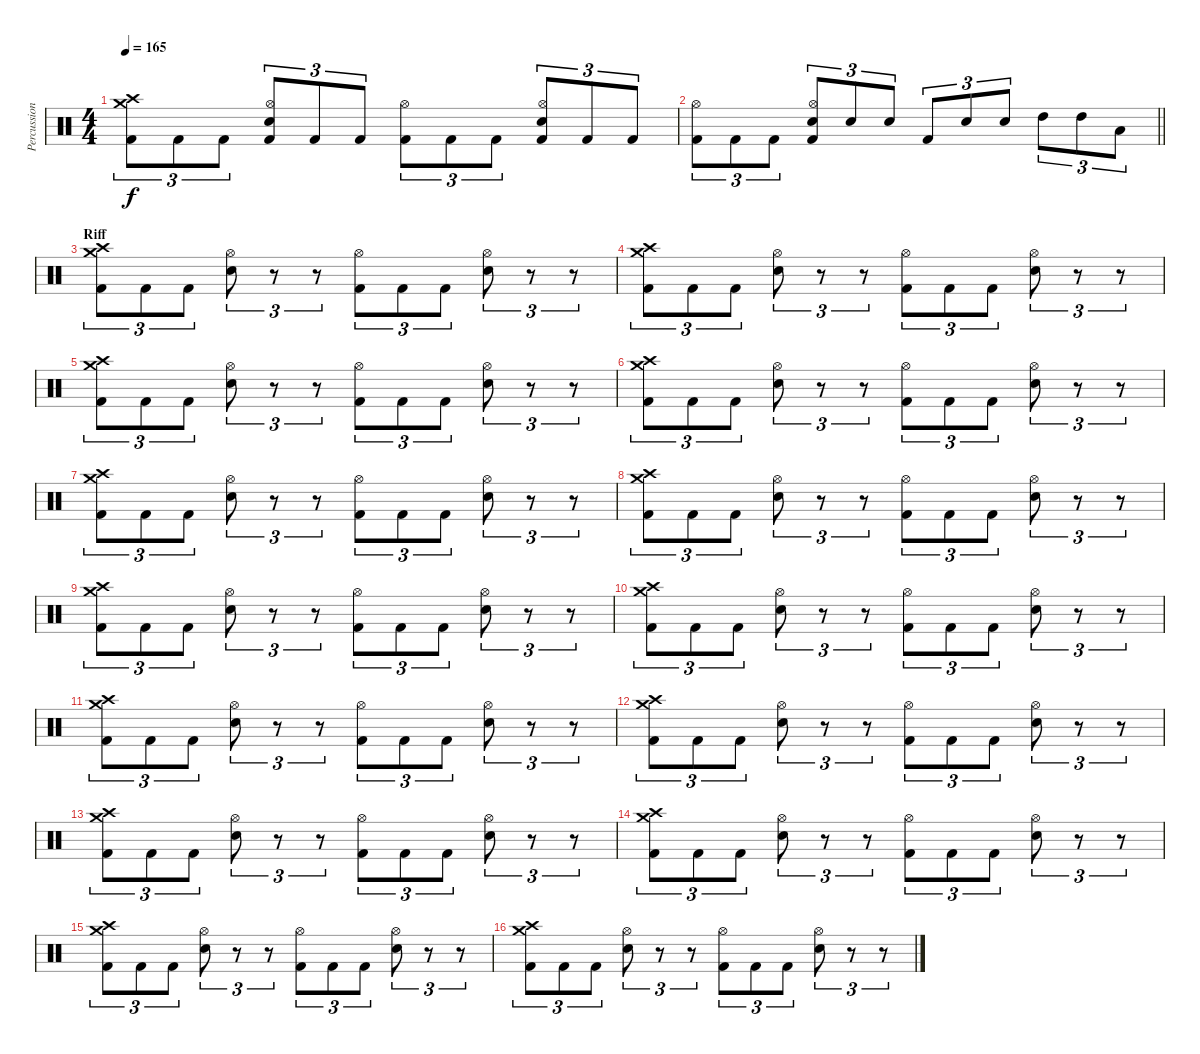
\track ("Percussioni" "Percussion") {instrument percussion}
\staff {score}
\articulation defaults
\ts (4 4)
\tempo 165
\clef neutral
\ks c
("Crash high (hit)" "Crash medium (hit)" "Kick (hit) 2").8{tu (3 2) dy f} "Kick (hit) 2".8{tu (3 2)} "Kick (hit) 2".8{tu (3 2)} ("Hi-Hat (open)" "Electric Snare (hit)" "Kick (hit) 2").8{tu (3 2)} "Kick (hit) 2".8{tu (3 2)} "Kick (hit) 2".8{tu (3 2)} ("Hi-Hat (open)" "Kick (hit) 2").8{tu (3 2)} "Kick (hit) 2".8{tu (3 2)} "Kick (hit) 2".8{tu (3 2)} ("Hi-Hat (open)" "Electric Snare (hit)" "Kick (hit) 2").8{tu (3 2)} "Kick (hit) 2".8{tu (3 2)} "Kick (hit) 2".8{tu (3 2)} |
\barLineRight lightlight
("Hi-Hat (open)" "Kick (hit) 2").8{tu (3 2)} "Kick (hit) 2".8{tu (3 2)} "Kick (hit) 2".8{tu (3 2)} ("Hi-Hat (open)" "Electric Snare (hit)" "Kick (hit) 2").8{tu (3 2)} "Electric Snare (hit)".8{tu (3 2)} "Electric Snare (hit)".8{tu (3 2)} "Kick (hit) 2".8{tu (3 2)} "Electric Snare (hit)".8{tu (3 2)} "Electric Snare (hit)".8{tu (3 2)} "High Tom (hit)".8{tu (3 2)} "High Tom (hit)".8{tu (3 2)} "Low Tom (hit)".8{tu (3 2)} |
\section ("" "Riff")
("Crash high (hit)" "Crash medium (hit)" "Kick (hit) 2").8{tu (3 2)} "Kick (hit) 2".8{tu (3 2)} "Kick (hit) 2".8{tu (3 2)} ("Hi-Hat (open)" "Electric Snare (hit)").8{tu (3 2)} r.8{tu (3 2)} r.8{tu (3 2)} ("Hi-Hat (open)" "Kick (hit) 2").8{tu (3 2)} "Kick (hit) 2".8{tu (3 2)} "Kick (hit) 2".8{tu (3 2)} ("Hi-Hat (open)" "Electric Snare (hit)").8{tu (3 2)} r.8{tu (3 2)} r.8{tu (3 2)} |
("Crash high (hit)" "Crash medium (hit)" "Kick (hit) 2").8{tu (3 2)} "Kick (hit) 2".8{tu (3 2)} "Kick (hit) 2".8{tu (3 2)} ("Hi-Hat (open)" "Electric Snare (hit)").8{tu (3 2)} r.8{tu (3 2)} r.8{tu (3 2)} ("Hi-Hat (open)" "Kick (hit) 2").8{tu (3 2)} "Kick (hit) 2".8{tu (3 2)} "Kick (hit) 2".8{tu (3 2)} ("Hi-Hat (open)" "Electric Snare (hit)").8{tu (3 2)} r.8{tu (3 2)} r.8{tu (3 2)} |
("Crash high (hit)" "Crash medium (hit)" "Kick (hit) 2").8{tu (3 2)} "Kick (hit) 2".8{tu (3 2)} "Kick (hit) 2".8{tu (3 2)} ("Hi-Hat (open)" "Electric Snare (hit)").8{tu (3 2)} r.8{tu (3 2)} r.8{tu (3 2)} ("Hi-Hat (open)" "Kick (hit) 2").8{tu (3 2)} "Kick (hit) 2".8{tu (3 2)} "Kick (hit) 2".8{tu (3 2)} ("Hi-Hat (open)" "Electric Snare (hit)").8{tu (3 2)} r.8{tu (3 2)} r.8{tu (3 2)} |
("Crash high (hit)" "Crash medium (hit)" "Kick (hit) 2").8{tu (3 2)} "Kick (hit) 2".8{tu (3 2)} "Kick (hit) 2".8{tu (3 2)} ("Hi-Hat (open)" "Electric Snare (hit)").8{tu (3 2)} r.8{tu (3 2)} r.8{tu (3 2)} ("Hi-Hat (open)" "Kick (hit) 2").8{tu (3 2)} "Kick (hit) 2".8{tu (3 2)} "Kick (hit) 2".8{tu (3 2)} ("Hi-Hat (open)" "Electric Snare (hit)").8{tu (3 2)} r.8{tu (3 2)} r.8{tu (3 2)} |
("Crash high (hit)" "Crash medium (hit)" "Kick (hit) 2").8{tu (3 2)} "Kick (hit) 2".8{tu (3 2)} "Kick (hit) 2".8{tu (3 2)} ("Hi-Hat (open)" "Electric Snare (hit)").8{tu (3 2)} r.8{tu (3 2)} r.8{tu (3 2)} ("Hi-Hat (open)" "Kick (hit) 2").8{tu (3 2)} "Kick (hit) 2".8{tu (3 2)} "Kick (hit) 2".8{tu (3 2)} ("Hi-Hat (open)" "Electric Snare (hit)").8{tu (3 2)} r.8{tu (3 2)} r.8{tu (3 2)} |
("Crash high (hit)" "Crash medium (hit)" "Kick (hit) 2").8{tu (3 2)} "Kick (hit) 2".8{tu (3 2)} "Kick (hit) 2".8{tu (3 2)} ("Hi-Hat (open)" "Electric Snare (hit)").8{tu (3 2)} r.8{tu (3 2)} r.8{tu (3 2)} ("Hi-Hat (open)" "Kick (hit) 2").8{tu (3 2)} "Kick (hit) 2".8{tu (3 2)} "Kick (hit) 2".8{tu (3 2)} ("Hi-Hat (open)" "Electric Snare (hit)").8{tu (3 2)} r.8{tu (3 2)} r.8{tu (3 2)} |
("Crash high (hit)" "Crash medium (hit)" "Kick (hit) 2").8{tu (3 2)} "Kick (hit) 2".8{tu (3 2)} "Kick (hit) 2".8{tu (3 2)} ("Hi-Hat (open)" "Electric Snare (hit)").8{tu (3 2)} r.8{tu (3 2)} r.8{tu (3 2)} ("Hi-Hat (open)" "Kick (hit) 2").8{tu (3 2)} "Kick (hit) 2".8{tu (3 2)} "Kick (hit) 2".8{tu (3 2)} ("Hi-Hat (open)" "Electric Snare (hit)").8{tu (3 2)} r.8{tu (3 2)} r.8{tu (3 2)} |
("Crash high (hit)" "Crash medium (hit)" "Kick (hit) 2").8{tu (3 2)} "Kick (hit) 2".8{tu (3 2)} "Kick (hit) 2".8{tu (3 2)} ("Hi-Hat (open)" "Electric Snare (hit)").8{tu (3 2)} r.8{tu (3 2)} r.8{tu (3 2)} ("Hi-Hat (open)" "Kick (hit) 2").8{tu (3 2)} "Kick (hit) 2".8{tu (3 2)} "Kick (hit) 2".8{tu (3 2)} ("Hi-Hat (open)" "Electric Snare (hit)").8{tu (3 2)} r.8{tu (3 2)} r.8{tu (3 2)} |
("Crash high (hit)" "Crash medium (hit)" "Kick (hit) 2").8{tu (3 2)} "Kick (hit) 2".8{tu (3 2)} "Kick (hit) 2".8{tu (3 2)} ("Hi-Hat (open)" "Electric Snare (hit)").8{tu (3 2)} r.8{tu (3 2)} r.8{tu (3 2)} ("Hi-Hat (open)" "Kick (hit) 2").8{tu (3 2)} "Kick (hit) 2".8{tu (3 2)} "Kick (hit) 2".8{tu (3 2)} ("Hi-Hat (open)" "Electric Snare (hit)").8{tu (3 2)} r.8{tu (3 2)} r.8{tu (3 2)} |
("Crash high (hit)" "Crash medium (hit)" "Kick (hit) 2").8{tu (3 2)} "Kick (hit) 2".8{tu (3 2)} "Kick (hit) 2".8{tu (3 2)} ("Hi-Hat (open)" "Electric Snare (hit)").8{tu (3 2)} r.8{tu (3 2)} r.8{tu (3 2)} ("Hi-Hat (open)" "Kick (hit) 2").8{tu (3 2)} "Kick (hit) 2".8{tu (3 2)} "Kick (hit) 2".8{tu (3 2)} ("Hi-Hat (open)" "Electric Snare (hit)").8{tu (3 2)} r.8{tu (3 2)} r.8{tu (3 2)} |
("Crash high (hit)" "Crash medium (hit)" "Kick (hit) 2").8{tu (3 2)} "Kick (hit) 2".8{tu (3 2)} "Kick (hit) 2".8{tu (3 2)} ("Hi-Hat (open)" "Electric Snare (hit)").8{tu (3 2)} r.8{tu (3 2)} r.8{tu (3 2)} ("Hi-Hat (open)" "Kick (hit) 2").8{tu (3 2)} "Kick (hit) 2".8{tu (3 2)} "Kick (hit) 2".8{tu (3 2)} ("Hi-Hat (open)" "Electric Snare (hit)").8{tu (3 2)} r.8{tu (3 2)} r.8{tu (3 2)} |
("Crash high (hit)" "Crash medium (hit)" "Kick (hit) 2").8{tu (3 2)} "Kick (hit) 2".8{tu (3 2)} "Kick (hit) 2".8{tu (3 2)} ("Hi-Hat (open)" "Electric Snare (hit)").8{tu (3 2)} r.8{tu (3 2)} r.8{tu (3 2)} ("Hi-Hat (open)" "Kick (hit) 2").8{tu (3 2)} "Kick (hit) 2".8{tu (3 2)} "Kick (hit) 2".8{tu (3 2)} ("Hi-Hat (open)" "Electric Snare (hit)").8{tu (3 2)} r.8{tu (3 2)} r.8{tu (3 2)} |
("Crash high (hit)" "Crash medium (hit)" "Kick (hit) 2").8{tu (3 2)} "Kick (hit) 2".8{tu (3 2)} "Kick (hit) 2".8{tu (3 2)} ("Hi-Hat (open)" "Electric Snare (hit)").8{tu (3 2)} r.8{tu (3 2)} r.8{tu (3 2)} ("Hi-Hat (open)" "Kick (hit) 2").8{tu (3 2)} "Kick (hit) 2".8{tu (3 2)} "Kick (hit) 2".8{tu (3 2)} ("Hi-Hat (open)" "Electric Snare (hit)").8{tu (3 2)} r.8{tu (3 2)} r.8{tu (3 2)} |
("Crash high (hit)" "Crash medium (hit)" "Kick (hit) 2").8{tu (3 2)} "Kick (hit) 2".8{tu (3 2)} "Kick (hit) 2".8{tu (3 2)} ("Hi-Hat (open)" "Electric Snare (hit)").8{tu (3 2)} r.8{tu (3 2)} r.8{tu (3 2)} ("Hi-Hat (open)" "Kick (hit) 2").8{tu (3 2)} "Kick (hit) 2".8{tu (3 2)} "Kick (hit) 2".8{tu (3 2)} ("Hi-Hat (open)" "Electric Snare (hit)").8{tu (3 2)} r.8{tu (3 2)} r.8{tu (3 2)}
